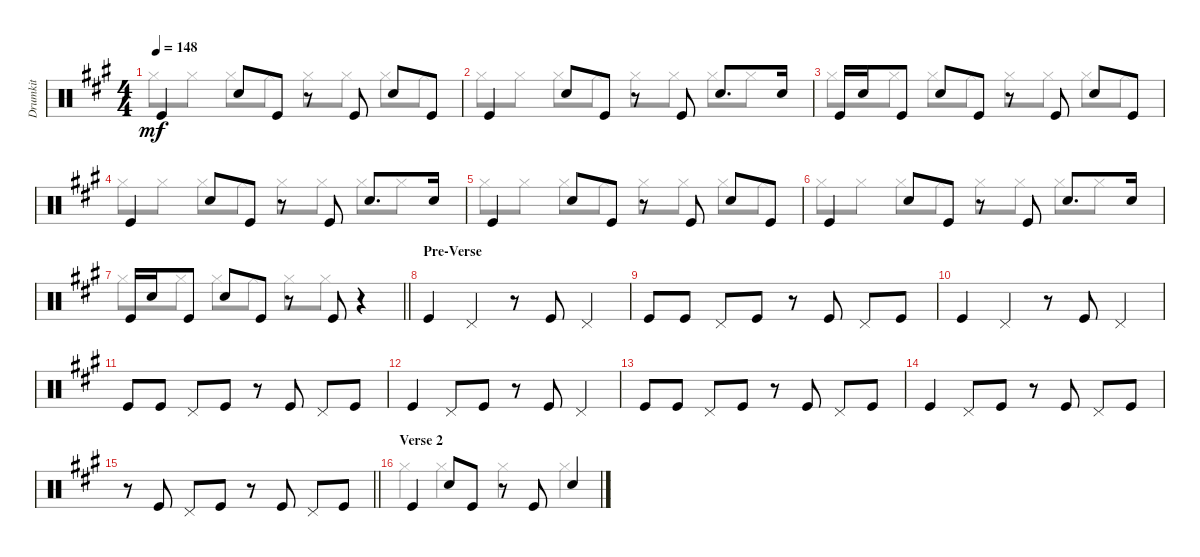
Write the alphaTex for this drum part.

\track ("Drumkit" "Drumkit") {instrument percussion}
\staff {score}
\articulation defaults
\voice
\ts (4 4)
\tempo 148
\clef neutral
\ks a "Kick (hit)".4{dy mf} "Snare (hit) 2".8 "Kick (hit)".8
r.8 "Kick (hit)".8 "Snare (hit) 2".8 "Kick (hit)".8 |
"Kick (hit)".4 "Snare (hit) 2".8 "Kick (hit)".8 r.8 "Kick (hit)".8 "Snare (hit) 2".8{d} "Snare (hit) 2".16 |
"Kick (hit)".16 "Snare (hit) 2".16 "Kick (hit)".8 "Snare (hit) 2".8 "Kick (hit)".8 r.8 "Kick (hit)".8 "Snare (hit) 2".8 "Kick (hit)".8 |
"Kick (hit)".4 "Snare (hit) 2".8 "Kick (hit)".8 r.8 "Kick (hit)".8 "Snare (hit) 2".8{d} "Snare (hit) 2".16 |
"Kick (hit)".4 "Snare (hit) 2".8 "Kick (hit)".8 r.8 "Kick (hit)".8 "Snare (hit) 2".8 "Kick (hit)".8 |
"Kick (hit)".4 "Snare (hit) 2".8 "Kick (hit)".8 r.8 "Kick (hit)".8 "Snare (hit) 2".8{d} "Snare (hit) 2".16 |
\barLineRight lightlight "Kick (hit)".16 "Snare (hit) 2".16 "Kick (hit)".8 "Snare (hit) 2".8 "Kick (hit)".8
r.8 "Kick (hit)".8 r.4 |
\section ("" "Pre-Verse")
"Kick (hit)".4 "Pedal Hi-Hat (hit)".4 r.8 "Kick (hit)".8 "Pedal Hi-Hat (hit)".4 |
"Kick (hit)".8 "Kick (hit)".8 "Pedal Hi-Hat (hit)".8 "Kick (hit)".8 r.8 "Kick (hit)".8 "Pedal Hi-Hat (hit)".8 "Kick (hit)".8 |
"Kick (hit)".4 "Pedal Hi-Hat (hit)".4 r.8 "Kick (hit)".8 "Pedal Hi-Hat (hit)".4 |
"Kick (hit)".8 "Kick (hit)".8 "Pedal Hi-Hat (hit)".8 "Kick (hit)".8 r.8 "Kick (hit)".8 "Pedal Hi-Hat (hit)".8 "Kick (hit)".8 |
"Kick (hit)".4 "Pedal Hi-Hat (hit)".8 "Kick (hit)".8 r.8 "Kick (hit)".8 "Pedal Hi-Hat (hit)".4 |
"Kick (hit)".8 "Kick (hit)".8 "Pedal Hi-Hat (hit)".8 "Kick (hit)".8 r.8 "Kick (hit)".8 "Pedal Hi-Hat (hit)".8 "Kick (hit)".8 |
"Kick (hit)".4 "Pedal Hi-Hat (hit)".8 "Kick (hit)".8 r.8 "Kick (hit)".8 "Pedal Hi-Hat (hit)".8 "Kick (hit)".8 |
\barLineRight lightlight
r.8 "Kick (hit)".8 "Pedal Hi-Hat (hit)".8 "Kick (hit)".8 r.8 "Kick (hit)".8 "Pedal Hi-Hat (hit)".8 "Kick (hit)".8 |
\section ("" "Verse 2")
"Kick (hit)".4 "Snare (hit) 2".8 "Kick (hit)".8 r.8 "Kick (hit)".8 "Snare (hit) 2".4
\voice
\clef neutral
\ottava regular
\simile none
\ks a "Hi-Hat (closed)".8{dy mf} "Hi-Hat (closed)".8 "Hi-Hat (closed)".8 "Hi-Hat (closed)".8 "Hi-Hat (closed)".8 "Hi-Hat (closed)".8 "Hi-Hat (closed)".8 "Hi-Hat (closed)".8
|
"Hi-Hat (closed)".8 "Hi-Hat (closed)".8 "Hi-Hat (closed)".8 "Hi-Hat (closed)".8 "Hi-Hat (closed)".8 "Hi-Hat (closed)".8 "Hi-Hat (closed)".8 "Hi-Hat (closed)".8 |
"Hi-Hat (closed)".8 "Hi-Hat (closed)".8 "Hi-Hat (closed)".8 "Hi-Hat (closed)".8 "Hi-Hat (closed)".8 "Hi-Hat (closed)".8 "Hi-Hat (closed)".8 "Hi-Hat (closed)".8 |
"Hi-Hat (closed)".8 "Hi-Hat (closed)".8 "Hi-Hat (closed)".8 "Hi-Hat (closed)".8 "Hi-Hat (closed)".8 "Hi-Hat (closed)".8 "Hi-Hat (closed)".8 "Hi-Hat (closed)".8 |
"Hi-Hat (closed)".8 "Hi-Hat (closed)".8 "Hi-Hat (closed)".8 "Hi-Hat (closed)".8 "Hi-Hat (closed)".8 "Hi-Hat (closed)".8 "Hi-Hat (closed)".8 "Hi-Hat (closed)".8 |
"Hi-Hat (closed)".8 "Hi-Hat (closed)".8 "Hi-Hat (closed)".8 "Hi-Hat (closed)".8 "Hi-Hat (closed)".8 "Hi-Hat (closed)".8 "Hi-Hat (closed)".8 "Hi-Hat (closed)".8 |
\barLineRight lightlight "Hi-Hat (closed)".8 "Hi-Hat (closed)".8 "Hi-Hat (closed)".8 "Hi-Hat (closed)".8 "Hi-Hat (closed)".8 "Hi-Hat (closed)".8
r.4 |
|
|
|
|
|
|
|
\barLineRight lightlight
|
"Hi-Hat (closed)".4 "Hi-Hat (closed)".4 "Hi-Hat (closed)".4 "Hi-Hat (closed)".4
